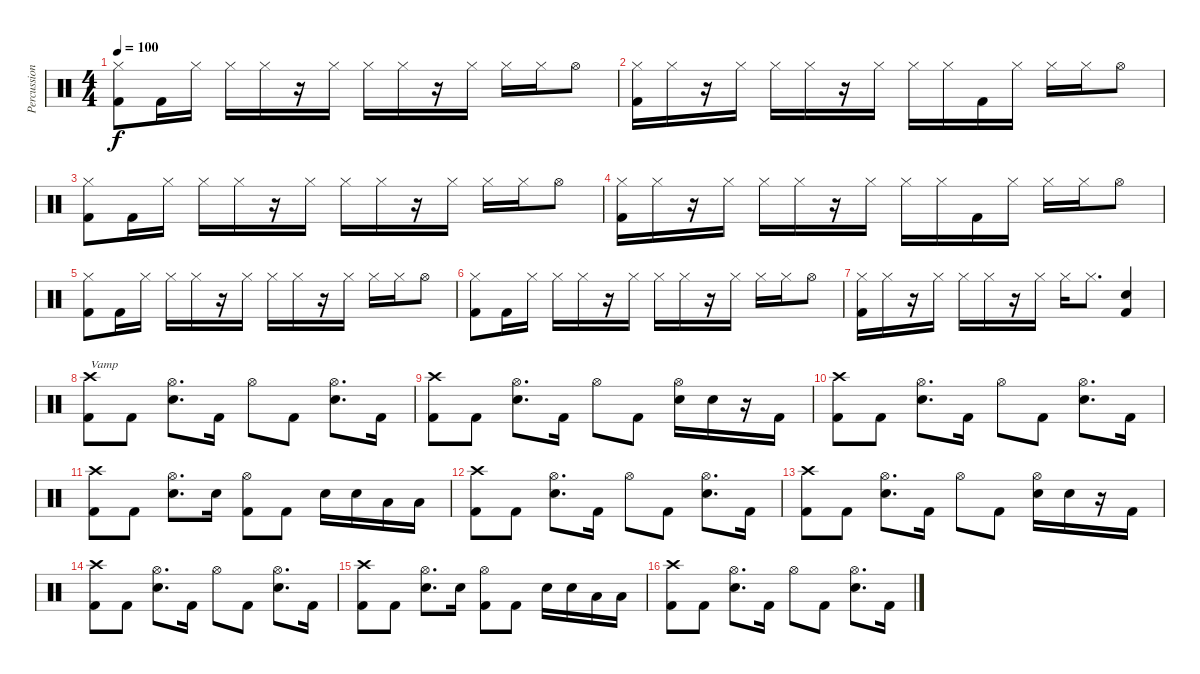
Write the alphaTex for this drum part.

\track ("Percussion" "Percussion") {instrument percussion}
\staff {score}
\articulation defaults
\ts (4 4)
\tempo 100
\clef neutral
\ks c
("Kick (hit) 2" "Hi-Hat (closed)").8{dy f} "Kick (hit) 2".16 "Hi-Hat (closed)".16 "Hi-Hat (closed)".16 "Hi-Hat (closed)".16 r.16 "Hi-Hat (closed)".16 "Hi-Hat (closed)".16 "Hi-Hat (closed)".16 r.16 "Hi-Hat (closed)".16 "Hi-Hat (closed)".16 "Hi-Hat (closed)".16 "Hi-Hat (open)".8 |
("Kick (hit) 2" "Hi-Hat (closed)").16 "Hi-Hat (closed)".16 r.16 "Hi-Hat (closed)".16 "Hi-Hat (closed)".16 "Hi-Hat (closed)".16 r.16 "Hi-Hat (closed)".16 "Hi-Hat (closed)".16 "Hi-Hat (closed)".16 "Kick (hit) 2".16 "Hi-Hat (closed)".16 "Hi-Hat (closed)".16 "Hi-Hat (closed)".16 "Hi-Hat (open)".8 |
("Kick (hit) 2" "Hi-Hat (closed)").8 "Kick (hit) 2".16 "Hi-Hat (closed)".16 "Hi-Hat (closed)".16 "Hi-Hat (closed)".16 r.16 "Hi-Hat (closed)".16 "Hi-Hat (closed)".16 "Hi-Hat (closed)".16 r.16 "Hi-Hat (closed)".16 "Hi-Hat (closed)".16 "Hi-Hat (closed)".16 "Hi-Hat (open)".8 |
("Kick (hit) 2" "Hi-Hat (closed)").16 "Hi-Hat (closed)".16 r.16 "Hi-Hat (closed)".16 "Hi-Hat (closed)".16 "Hi-Hat (closed)".16 r.16 "Hi-Hat (closed)".16 "Hi-Hat (closed)".16 "Hi-Hat (closed)".16 "Kick (hit) 2".16 "Hi-Hat (closed)".16 "Hi-Hat (closed)".16 "Hi-Hat (closed)".16 "Hi-Hat (open)".8 |
("Kick (hit) 2" "Hi-Hat (closed)").8 "Kick (hit) 2".16 "Hi-Hat (closed)".16 "Hi-Hat (closed)".16 "Hi-Hat (closed)".16 r.16 "Hi-Hat (closed)".16 "Hi-Hat (closed)".16 "Hi-Hat (closed)".16 r.16 "Hi-Hat (closed)".16 "Hi-Hat (closed)".16 "Hi-Hat (closed)".16 "Hi-Hat (open)".8 |
("Kick (hit) 2" "Hi-Hat (closed)").8 "Kick (hit) 2".16 "Hi-Hat (closed)".16 "Hi-Hat (closed)".16 "Hi-Hat (closed)".16 r.16 "Hi-Hat (closed)".16 "Hi-Hat (closed)".16 "Hi-Hat (closed)".16 r.16 "Hi-Hat (closed)".16 "Hi-Hat (closed)".16 "Hi-Hat (closed)".16 "Hi-Hat (open)".8 |
("Kick (hit) 2" "Hi-Hat (closed)").16 "Hi-Hat (closed)".16 r.16 "Hi-Hat (closed)".16 "Hi-Hat (closed)".16 "Hi-Hat (closed)".16 r.16 "Hi-Hat (closed)".16 "Hi-Hat (closed)".16 "Hi-Hat (closed)".8{d} ("Electric Snare (hit)" "Kick (hit) 2").4{volume 8} |
("Kick (hit) 2" "Crash high (hit)").8{txt "Vamp"} "Kick (hit) 2".8 ("Electric Snare (hit)" "Hi-Hat (open)").8{d} "Kick (hit) 2".16 "Hi-Hat (open)".8 "Kick (hit) 2".8 ("Hi-Hat (open)" "Electric Snare (hit)").8{d} "Kick (hit) 2".16 |
("Crash high (hit)" "Kick (hit) 2").8 "Kick (hit) 2".8 ("Hi-Hat (open)" "Electric Snare (hit)").8{d} "Kick (hit) 2".16 "Hi-Hat (open)".8 "Kick (hit) 2".8 ("Hi-Hat (open)" "Electric Snare (hit)").16 "Electric Snare (hit)".16 r.16 "Kick (hit) 2".16 |
("Kick (hit) 2" "Crash high (hit)").8 "Kick (hit) 2".8 ("Electric Snare (hit)" "Hi-Hat (open)").8{d} "Kick (hit) 2".16 "Hi-Hat (open)".8 "Kick (hit) 2".8 ("Hi-Hat (open)" "Electric Snare (hit)").8{d} "Kick (hit) 2".16 |
("Kick (hit) 2" "Crash high (hit)").8 "Kick (hit) 2".8 ("Hi-Hat (open)" "Electric Snare (hit)").8{d} "Electric Snare (hit)".16 ("Kick (hit) 2" "Hi-Hat (open)").8 "Kick (hit) 2".8 "Electric Snare (hit)".16 "Electric Snare (hit)".16 "Low Tom (hit)".16 "Low Tom (hit)".16 |
("Kick (hit) 2" "Crash high (hit)").8 "Kick (hit) 2".8 ("Electric Snare (hit)" "Hi-Hat (open)").8{d} "Kick (hit) 2".16 "Hi-Hat (open)".8 "Kick (hit) 2".8 ("Hi-Hat (open)" "Electric Snare (hit)").8{d} "Kick (hit) 2".16 |
("Crash high (hit)" "Kick (hit) 2").8 "Kick (hit) 2".8 ("Hi-Hat (open)" "Electric Snare (hit)").8{d} "Kick (hit) 2".16 "Hi-Hat (open)".8 "Kick (hit) 2".8 ("Hi-Hat (open)" "Electric Snare (hit)").16 "Electric Snare (hit)".16 r.16 "Kick (hit) 2".16 |
("Kick (hit) 2" "Crash high (hit)").8 "Kick (hit) 2".8 ("Electric Snare (hit)" "Hi-Hat (open)").8{d} "Kick (hit) 2".16 "Hi-Hat (open)".8 "Kick (hit) 2".8 ("Hi-Hat (open)" "Electric Snare (hit)").8{d} "Kick (hit) 2".16 |
("Kick (hit) 2" "Crash high (hit)").8 "Kick (hit) 2".8 ("Hi-Hat (open)" "Electric Snare (hit)").8{d} "Electric Snare (hit)".16 ("Kick (hit) 2" "Hi-Hat (open)").8 "Kick (hit) 2".8 "Electric Snare (hit)".16 "Electric Snare (hit)".16 "Low Tom (hit)".16 "Low Tom (hit)".16 |
("Kick (hit) 2" "Crash high (hit)").8 "Kick (hit) 2".8 ("Electric Snare (hit)" "Hi-Hat (open)").8{d} "Kick (hit) 2".16 "Hi-Hat (open)".8 "Kick (hit) 2".8 ("Hi-Hat (open)" "Electric Snare (hit)").8{d} "Kick (hit) 2".16
